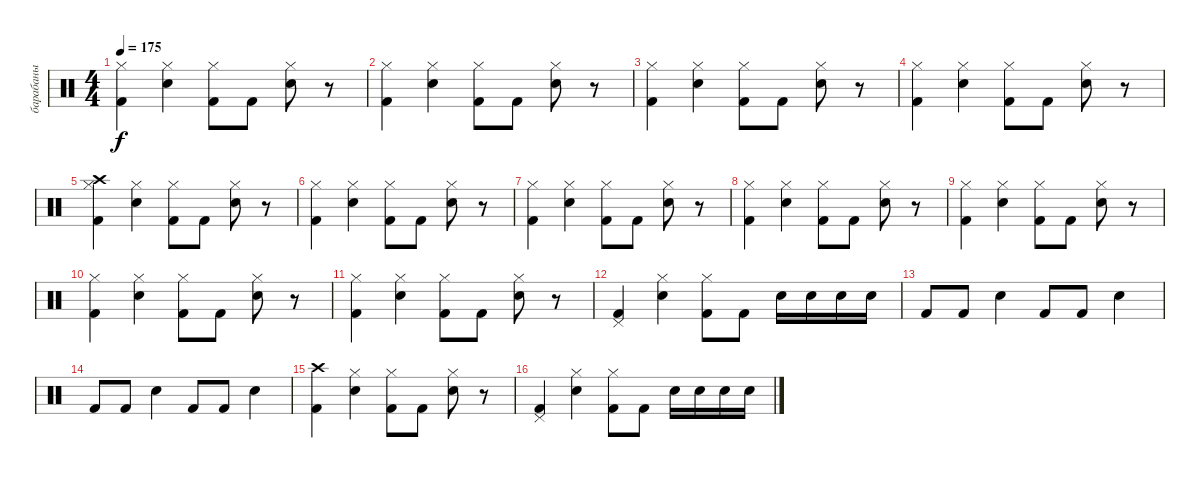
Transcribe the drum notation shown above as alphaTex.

\track ("барабаны" "барабаны") {instrument percussion}
\staff {score}
\articulation defaults
\ts (4 4)
\tempo 175
\clef neutral
\ks c
("Hi-Hat (closed)" "Kick (hit) 2").4{dy f} ("Hi-Hat (closed)" "Snare (hit) 2").4 ("Hi-Hat (closed)" "Kick (hit) 2").8 "Kick (hit) 2".8 ("Hi-Hat (closed)" "Snare (hit) 2").8 r.8 |
("Hi-Hat (closed)" "Kick (hit) 2").4 ("Hi-Hat (closed)" "Snare (hit) 2").4 ("Hi-Hat (closed)" "Kick (hit) 2").8 "Kick (hit) 2".8 ("Hi-Hat (closed)" "Snare (hit) 2").8 r.8 |
("Hi-Hat (closed)" "Kick (hit) 2").4 ("Hi-Hat (closed)" "Snare (hit) 2").4 ("Hi-Hat (closed)" "Kick (hit) 2").8 "Kick (hit) 2".8 ("Hi-Hat (closed)" "Snare (hit) 2").8 r.8 |
("Hi-Hat (closed)" "Kick (hit) 2").4 ("Hi-Hat (closed)" "Snare (hit) 2").4 ("Hi-Hat (closed)" "Kick (hit) 2").8 "Kick (hit) 2".8 ("Hi-Hat (closed)" "Snare (hit) 2").8 r.8 |
("Crash high (hit)" "Hi-Hat (closed)" "Kick (hit) 2").4 ("Hi-Hat (closed)" "Snare (hit) 2").4 ("Hi-Hat (closed)" "Kick (hit) 2").8 "Kick (hit) 2".8 ("Hi-Hat (closed)" "Snare (hit) 2").8 r.8 |
("Hi-Hat (closed)" "Kick (hit) 2").4 ("Hi-Hat (closed)" "Snare (hit) 2").4 ("Hi-Hat (closed)" "Kick (hit) 2").8 "Kick (hit) 2".8 ("Hi-Hat (closed)" "Snare (hit) 2").8 r.8 |
("Hi-Hat (closed)" "Kick (hit) 2").4 ("Hi-Hat (closed)" "Snare (hit) 2").4 ("Hi-Hat (closed)" "Kick (hit) 2").8 "Kick (hit) 2".8 ("Hi-Hat (closed)" "Snare (hit) 2").8 r.8 |
("Hi-Hat (closed)" "Kick (hit) 2").4 ("Hi-Hat (closed)" "Snare (hit) 2").4 ("Hi-Hat (closed)" "Kick (hit) 2").8 "Kick (hit) 2".8 ("Hi-Hat (closed)" "Snare (hit) 2").8 r.8 |
("Hi-Hat (closed)" "Kick (hit) 2").4 ("Hi-Hat (closed)" "Snare (hit) 2").4 ("Hi-Hat (closed)" "Kick (hit) 2").8 "Kick (hit) 2".8 ("Hi-Hat (closed)" "Snare (hit) 2").8 r.8 |
("Hi-Hat (closed)" "Kick (hit) 2").4 ("Hi-Hat (closed)" "Snare (hit) 2").4 ("Hi-Hat (closed)" "Kick (hit) 2").8 "Kick (hit) 2".8 ("Hi-Hat (closed)" "Snare (hit) 2").8 r.8 |
("Hi-Hat (closed)" "Kick (hit) 2").4 ("Hi-Hat (closed)" "Snare (hit) 2").4 ("Hi-Hat (closed)" "Kick (hit) 2").8 "Kick (hit) 2".8 ("Hi-Hat (closed)" "Snare (hit) 2").8 r.8 |
("Pedal Hi-Hat (hit)" "Kick (hit) 2").4 ("Hi-Hat (closed)" "Snare (hit) 2").4 ("Hi-Hat (closed)" "Kick (hit) 2").8 "Kick (hit) 2".8 "Snare (hit) 2".16 "Snare (hit) 2".16 "Snare (hit) 2".16 "Snare (hit) 2".16 |
"Kick (hit) 2".8 "Kick (hit) 2".8 "Snare (hit) 2".4 "Kick (hit) 2".8 "Kick (hit) 2".8 "Snare (hit) 2".4 |
"Kick (hit) 2".8 "Kick (hit) 2".8 "Snare (hit) 2".4 "Kick (hit) 2".8 "Kick (hit) 2".8 "Snare (hit) 2".4 |
("Crash high (hit)" "Kick (hit) 2").4 ("Hi-Hat (closed)" "Snare (hit) 2").4 ("Hi-Hat (closed)" "Kick (hit) 2").8 "Kick (hit) 2".8 ("Hi-Hat (closed)" "Snare (hit) 2").8 r.8 |
("Pedal Hi-Hat (hit)" "Kick (hit) 2").4 ("Hi-Hat (closed)" "Snare (hit) 2").4 ("Hi-Hat (closed)" "Kick (hit) 2").8 "Kick (hit) 2".8 "Snare (hit) 2".16 "Snare (hit) 2".16 "Snare (hit) 2".16 "Snare (hit) 2".16
